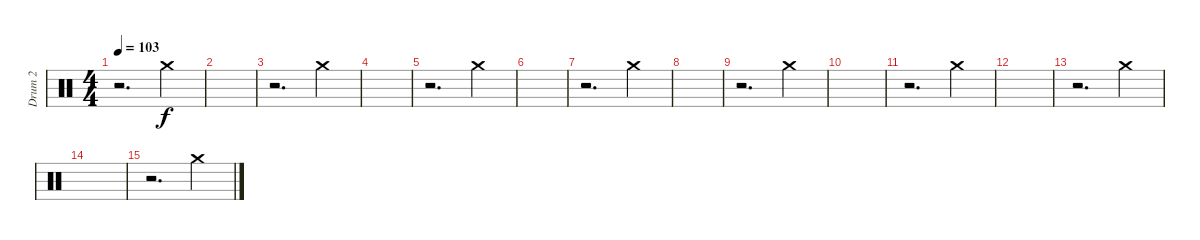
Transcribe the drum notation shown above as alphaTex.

\track ("Drum 2" "Drum 2") {instrument percussion}
\staff {score}
\articulation defaults
\ts (4 4)
\tempo 103
\clef neutral
\ks c
r.2{d dy f} "Crash medium (hit)".4 |
|
r.2{d} "Crash medium (hit)".4 |
|
r.2{d} "Crash medium (hit)".4 |
|
r.2{d} "Crash medium (hit)".4 |
|
r.2{d} "Crash medium (hit)".4 |
|
r.2{d} "Crash medium (hit)".4 |
|
r.2{d} "Crash medium (hit)".4 |
|
r.2{d} "Crash medium (hit)".4
